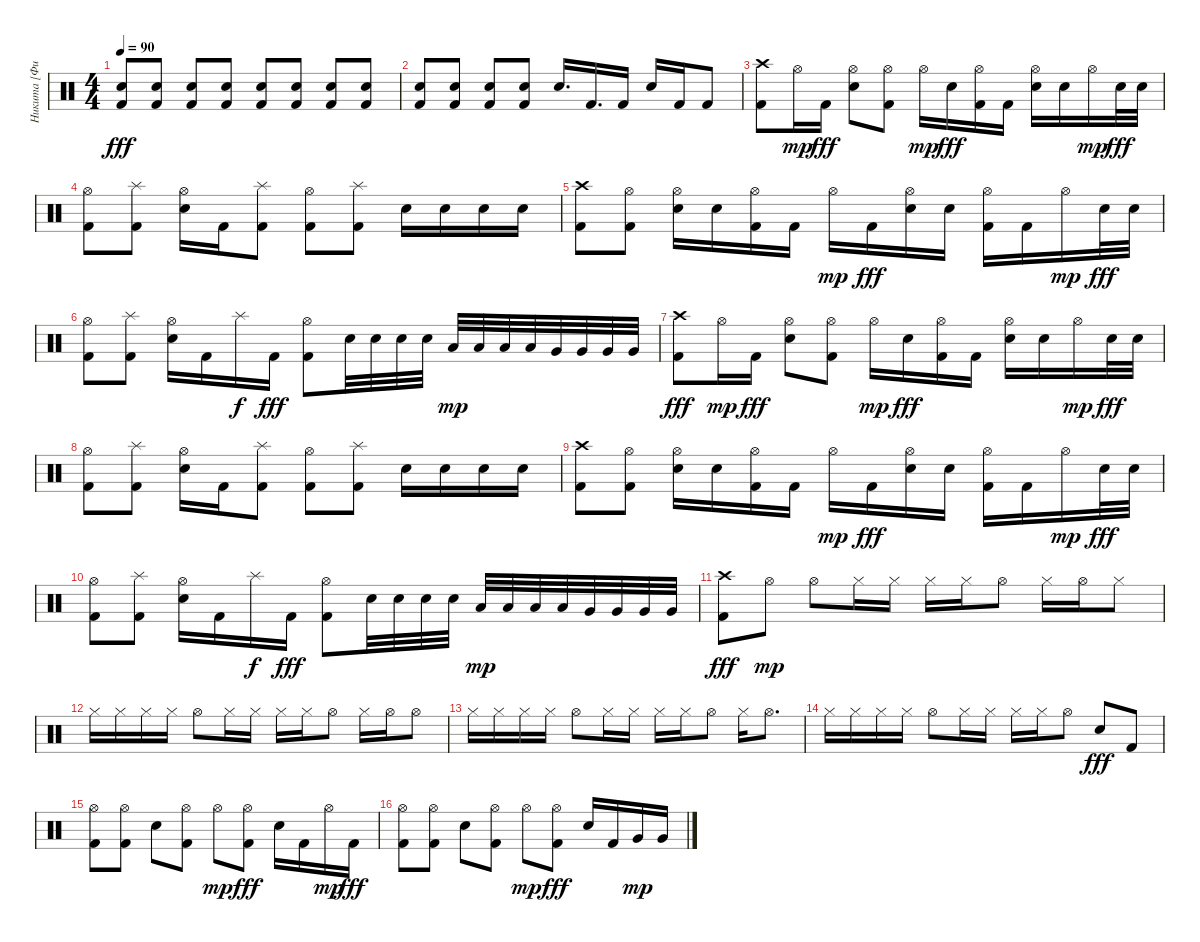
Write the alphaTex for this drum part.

\track ("Никита [Фил]" "Никита [Фи") {instrument percussion}
\staff {score}
\articulation defaults
\ts (4 4)
\tempo 90
\clef neutral
\ks c
("Electric Snare (hit)" "Kick (hit) 2").8{dy fff} ("Electric Snare (hit)" "Kick (hit) 2").8 ("Electric Snare (hit)" "Kick (hit) 2").8 ("Electric Snare (hit)" "Kick (hit) 2").8 ("Electric Snare (hit)" "Kick (hit) 2").8 ("Electric Snare (hit)" "Kick (hit) 2").8 ("Electric Snare (hit)" "Kick (hit) 2").8 ("Electric Snare (hit)" "Kick (hit) 2").8 |
("Electric Snare (hit)" "Kick (hit) 2").8 ("Electric Snare (hit)" "Kick (hit) 2").8 ("Electric Snare (hit)" "Kick (hit) 2").8 ("Electric Snare (hit)" "Kick (hit) 2").8 "Electric Snare (hit)".16{d} "Kick (hit) 2".16{d} "Kick (hit) 2".16 "Electric Snare (hit)".16 "Kick (hit) 2".16 "Kick (hit) 2".8 |
("Crash high (hit)" "Kick (hit) 2").8 "Hi-Hat (open)".16{dy mp} "Kick (hit) 2".16{dy fff} ("Hi-Hat (open)" "Electric Snare (hit)").8 ("Hi-Hat (open)" "Kick (hit) 2").8 "Hi-Hat (open)".16{dy mp} "Electric Snare (hit)".16{dy fff} ("Hi-Hat (open)" "Kick (hit) 2").16 "Kick (hit) 2".16 ("Hi-Hat (open)" "Electric Snare (hit)").16 "Electric Snare (hit)".16 "Hi-Hat (open)".16{dy mp} "Electric Snare (hit)".32{dy fff} "Electric Snare (hit)".32 |
("Hi-Hat (open)" "Kick (hit) 2").8 ("Splash (hit)" "Kick (hit) 2").8 ("Hi-Hat (open)" "Electric Snare (hit)").16 "Kick (hit) 2".16 ("Splash (hit)" "Kick (hit) 2").8 ("Hi-Hat (open)" "Kick (hit) 2").8 ("Splash (hit)" "Kick (hit) 2").8 "Electric Snare (hit)".16 "Electric Snare (hit)".16 "Electric Snare (hit)".16 "Electric Snare (hit)".16 |
("Crash high (hit)" "Kick (hit) 2").8 ("Hi-Hat (open)" "Kick (hit) 2").8 ("Hi-Hat (open)" "Electric Snare (hit)").16 "Electric Snare (hit)".16 ("Hi-Hat (open)" "Kick (hit) 2").16 "Kick (hit) 2".16 "Hi-Hat (open)".16{dy mp} "Kick (hit) 2".16{dy fff} ("Hi-Hat (open)" "Electric Snare (hit)").16 "Electric Snare (hit)".16 ("Hi-Hat (open)" "Kick (hit) 2").16 "Kick (hit) 2".16 "Hi-Hat (open)".16{dy mp} "Electric Snare (hit)".32{dy fff} "Electric Snare (hit)".32 |
("Hi-Hat (open)" "Kick (hit) 2").8 ("Splash (hit)" "Kick (hit) 2").8 ("Hi-Hat (open)" "Electric Snare (hit)").16 "Kick (hit) 2".16 "Splash (hit)".16{dy f} "Kick (hit) 2".16{dy fff} ("Hi-Hat (open)" "Kick (hit) 2").8 "Electric Snare (hit)".32 "Electric Snare (hit)".32 "Electric Snare (hit)".32 "Electric Snare (hit)".32 "Low Tom (hit)".32{dy mp} "Low Tom (hit)".32 "Low Tom (hit)".32 "Low Tom (hit)".32 "Very Low Tom (hit)".32 "Very Low Tom (hit)".32 "Very Low Tom (hit)".32 "Very Low Tom (hit)".32 |
("Crash high (hit)" "Kick (hit) 2").8{dy fff} "Hi-Hat (open)".16{dy mp} "Kick (hit) 2".16{dy fff} ("Hi-Hat (open)" "Electric Snare (hit)").8 ("Hi-Hat (open)" "Kick (hit) 2").8 "Hi-Hat (open)".16{dy mp} "Electric Snare (hit)".16{dy fff} ("Hi-Hat (open)" "Kick (hit) 2").16 "Kick (hit) 2".16 ("Hi-Hat (open)" "Electric Snare (hit)").16 "Electric Snare (hit)".16 "Hi-Hat (open)".16{dy mp} "Electric Snare (hit)".32{dy fff} "Electric Snare (hit)".32 |
("Hi-Hat (open)" "Kick (hit) 2").8 ("Splash (hit)" "Kick (hit) 2").8 ("Hi-Hat (open)" "Electric Snare (hit)").16 "Kick (hit) 2".16 ("Splash (hit)" "Kick (hit) 2").8 ("Hi-Hat (open)" "Kick (hit) 2").8 ("Splash (hit)" "Kick (hit) 2").8 "Electric Snare (hit)".16 "Electric Snare (hit)".16 "Electric Snare (hit)".16 "Electric Snare (hit)".16 |
("Crash high (hit)" "Kick (hit) 2").8 ("Hi-Hat (open)" "Kick (hit) 2").8 ("Hi-Hat (open)" "Electric Snare (hit)").16 "Electric Snare (hit)".16 ("Hi-Hat (open)" "Kick (hit) 2").16 "Kick (hit) 2".16 "Hi-Hat (open)".16{dy mp} "Kick (hit) 2".16{dy fff} ("Hi-Hat (open)" "Electric Snare (hit)").16 "Electric Snare (hit)".16 ("Hi-Hat (open)" "Kick (hit) 2").16 "Kick (hit) 2".16 "Hi-Hat (open)".16{dy mp} "Electric Snare (hit)".32{dy fff} "Electric Snare (hit)".32 |
("Hi-Hat (open)" "Kick (hit) 2").8 ("Splash (hit)" "Kick (hit) 2").8 ("Hi-Hat (open)" "Electric Snare (hit)").16 "Kick (hit) 2".16 "Splash (hit)".16{dy f} "Kick (hit) 2".16{dy fff} ("Hi-Hat (open)" "Kick (hit) 2").8 "Electric Snare (hit)".32 "Electric Snare (hit)".32 "Electric Snare (hit)".32 "Electric Snare (hit)".32 "Low Tom (hit)".32{dy mp} "Low Tom (hit)".32 "Low Tom (hit)".32 "Low Tom (hit)".32 "Very Low Tom (hit)".32 "Very Low Tom (hit)".32 "Very Low Tom (hit)".32 "Very Low Tom (hit)".32 |
("Crash high (hit)" "Kick (hit) 2").8{dy fff} "Hi-Hat (open)".8{dy mp} "Hi-Hat (open)".8 "Hi-Hat (closed)".16 "Hi-Hat (closed)".16 "Hi-Hat (closed)".16 "Hi-Hat (closed)".16 "Hi-Hat (open)".8 "Hi-Hat (closed)".16 "Hi-Hat (open)".16 "Hi-Hat (closed)".8 |
"Hi-Hat (closed)".16 "Hi-Hat (closed)".16 "Hi-Hat (closed)".16 "Hi-Hat (closed)".16 "Hi-Hat (open)".8 "Hi-Hat (closed)".16 "Hi-Hat (closed)".16 "Hi-Hat (closed)".16 "Hi-Hat (closed)".16 "Hi-Hat (open)".8 "Hi-Hat (closed)".16 "Hi-Hat (open)".16 "Hi-Hat (open)".8 |
"Hi-Hat (closed)".16 "Hi-Hat (closed)".16 "Hi-Hat (closed)".16 "Hi-Hat (closed)".16 "Hi-Hat (open)".8 "Hi-Hat (closed)".16 "Hi-Hat (closed)".16 "Hi-Hat (closed)".16 "Hi-Hat (closed)".16 "Hi-Hat (open)".8 "Hi-Hat (closed)".16 "Hi-Hat (open)".8{d} |
"Hi-Hat (closed)".16 "Hi-Hat (closed)".16 "Hi-Hat (closed)".16 "Hi-Hat (closed)".16 "Hi-Hat (open)".8 "Hi-Hat (closed)".16 "Hi-Hat (closed)".16 "Hi-Hat (closed)".16 "Hi-Hat (closed)".16 "Hi-Hat (open)".8 "Electric Snare (hit)".8{dy fff} "Kick (hit) 2".8 |
("Hi-Hat (open)" "Kick (hit) 2").8 ("Hi-Hat (open)" "Kick (hit) 2").8 "Electric Snare (hit)".8 ("Hi-Hat (open)" "Kick (hit) 2").8 "Hi-Hat (open)".8{dy mp} ("Hi-Hat (open)" "Kick (hit) 2").8{dy fff} "Electric Snare (hit)".16 "Kick (hit) 2".16 "Hi-Hat (open)".16{dy mp} "Kick (hit) 2".16{dy fff} |
("Hi-Hat (open)" "Kick (hit) 2").8 ("Hi-Hat (open)" "Kick (hit) 2").8 "Electric Snare (hit)".8 ("Hi-Hat (open)" "Kick (hit) 2").8 "Hi-Hat (open)".8{dy mp} ("Hi-Hat (open)" "Kick (hit) 2").8{dy fff} "Electric Snare (hit)".16 "Kick (hit) 2".16 "Very Low Tom (hit)".16{dy mp} "Very Low Tom (hit)".16
